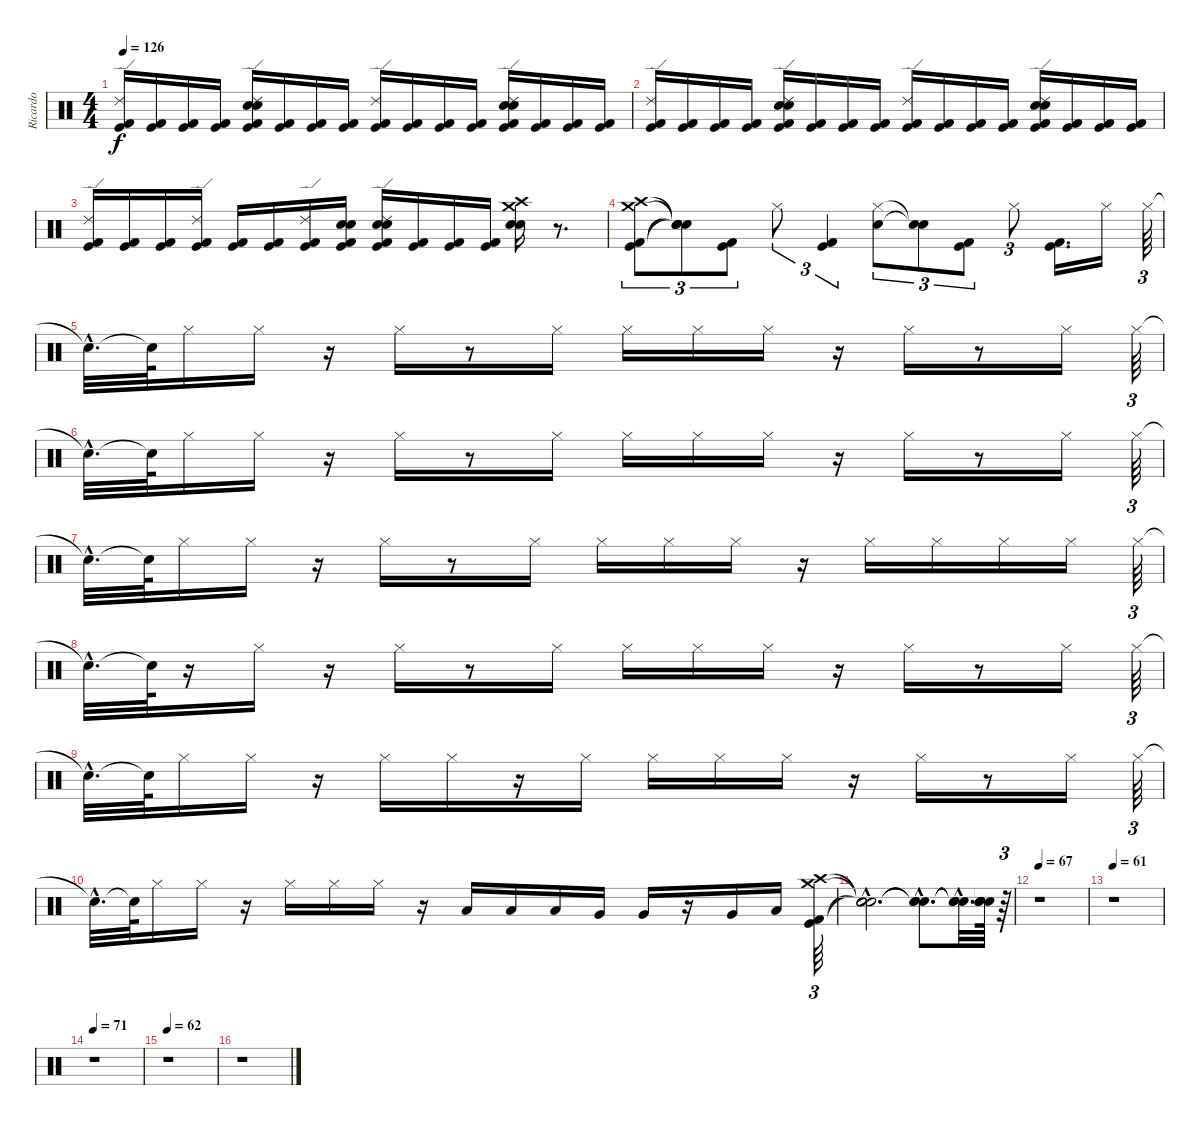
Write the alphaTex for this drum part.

\track ("Ricardo" "Ricardo") {instrument percussion}
\staff {score}
\articulation defaults
\ts (4 4)
\tempo 126
\clef neutral
\ks c
("Kick (hit) 2" "Ride (edge) 2" "Kick (hit)").16{dy f} ("Kick (hit) 2" "Kick (hit)").16 ("Kick (hit) 2" "Kick (hit)").16 ("Kick (hit) 2" "Kick (hit)").16 ("Snare (hit) 2" "Kick (hit) 2" "Ride (edge) 2" "Electric Snare (hit)" "Kick (hit)").16 ("Kick (hit) 2" "Kick (hit)").16 ("Kick (hit) 2" "Kick (hit)").16 ("Kick (hit) 2" "Kick (hit)").16 ("Kick (hit) 2" "Ride (edge) 2" "Kick (hit)").16 ("Kick (hit) 2" "Kick (hit)").16 ("Kick (hit) 2" "Kick (hit)").16 ("Kick (hit) 2" "Kick (hit)").16 ("Snare (hit) 2" "Kick (hit) 2" "Ride (edge) 2" "Electric Snare (hit)" "Kick (hit)").16 ("Kick (hit) 2" "Kick (hit)").16 ("Kick (hit) 2" "Kick (hit)").16 ("Kick (hit) 2" "Kick (hit)").16 |
("Kick (hit) 2" "Ride (edge) 2" "Kick (hit)").16 ("Kick (hit) 2" "Kick (hit)").16 ("Kick (hit) 2" "Kick (hit)").16 ("Kick (hit) 2" "Kick (hit)").16 ("Snare (hit) 2" "Kick (hit) 2" "Ride (edge) 2" "Electric Snare (hit)" "Kick (hit)").16 ("Kick (hit) 2" "Kick (hit)").16 ("Kick (hit) 2" "Kick (hit)").16 ("Kick (hit) 2" "Kick (hit)").16 ("Kick (hit) 2" "Ride (edge) 2" "Kick (hit)").16 ("Kick (hit) 2" "Kick (hit)").16 ("Kick (hit) 2" "Kick (hit)").16 ("Kick (hit) 2" "Kick (hit)").16 ("Snare (hit) 2" "Kick (hit) 2" "Ride (edge) 2" "Electric Snare (hit)" "Kick (hit)").16 ("Kick (hit) 2" "Kick (hit)").16 ("Kick (hit) 2" "Kick (hit)").16 ("Kick (hit) 2" "Kick (hit)").16 |
("Ride (edge) 2" "Kick (hit) 2" "Kick (hit)").16 ("Kick (hit) 2" "Kick (hit)").16 ("Kick (hit) 2" "Kick (hit)").16 ("Ride (edge) 2" "Kick (hit) 2" "Kick (hit)").16 ("Kick (hit) 2" "Kick (hit)").16 ("Kick (hit) 2" "Kick (hit)").16 ("Ride (edge) 2" "Kick (hit) 2" "Kick (hit)").16 ("Electric Snare (hit)" "Snare (hit) 2" "Kick (hit) 2" "Kick (hit)").16 ("Ride (edge) 2" "Snare (hit) 2" "Electric Snare (hit)" "Kick (hit) 2" "Kick (hit)").16 ("Kick (hit) 2" "Kick (hit)").16 ("Kick (hit) 2" "Kick (hit)").16 ("Kick (hit) 2" "Kick (hit)").16 ("Crash high (hit)" "Crash medium (hit)" "Electric Snare (hit)" "Snare (hit) 2").16 r.8{d} |
("Crash high (hit)" "Crash medium (hit)" "Kick (hit) 2" "Kick (hit)").8{tu (3 2)} ("Snare (hit)"{t} "Snare (hit)"{t} "Snare (hit)"{t} "Snare (hit)"{t}).8{tu (3 2)} ("Kick (hit) 2" "Kick (hit)").8{tu (3 2)} "Hi-Hat (closed)".8{tu (3 2)} ("Kick (hit) 2" "Kick (hit)").4{tu (3 2)} ("Snare (hit)" "Hi-Hat (closed)").8{tu (3 2)} ("Snare (hit)"{t} "Snare (hit)"{t}).8{tu (3 2)} ("Kick (hit) 2" "Kick (hit)").8{tu (3 2)} "Hi-Hat (closed)".8{tu (3 2)} ("Kick (hit) 2" "Kick (hit)").16{d} "Hi-Hat (closed)".16 "Hi-Hat (closed)".64{tu (3 2)} |
"Snare (hit)"{hac t}.32{d} "Snare (hit)"{t}.64 "Hi-Hat (closed)".16 "Hi-Hat (closed)".16 r.16 "Hi-Hat (closed)".16 r.8 "Hi-Hat (closed)".16 "Hi-Hat (closed)".16 "Hi-Hat (closed)".16 "Hi-Hat (closed)".16 r.16 "Hi-Hat (closed)".16 r.8 "Hi-Hat (closed)".16 "Hi-Hat (closed)".64{tu (3 2)} |
"Snare (hit)"{hac t}.32{d} "Snare (hit)"{t}.64 "Hi-Hat (closed)".16 "Hi-Hat (closed)".16 r.16 "Hi-Hat (closed)".16 r.8 "Hi-Hat (closed)".16 "Hi-Hat (closed)".16 "Hi-Hat (closed)".16 "Hi-Hat (closed)".16 r.16 "Hi-Hat (closed)".16 r.8 "Hi-Hat (closed)".16 "Hi-Hat (closed)".64{tu (3 2)} |
"Snare (hit)"{hac t}.32{d} "Snare (hit)"{t}.64 "Hi-Hat (closed)".16 "Hi-Hat (closed)".16 r.16 "Hi-Hat (closed)".16 r.8 "Hi-Hat (closed)".16 "Hi-Hat (closed)".16 "Hi-Hat (closed)".16 "Hi-Hat (closed)".16 r.16 "Hi-Hat (closed)".16 "Hi-Hat (closed)".16 "Hi-Hat (closed)".16 "Hi-Hat (closed)".16 "Hi-Hat (closed)".64{tu (3 2)} |
"Snare (hit)"{hac t}.32{d} "Snare (hit)"{t}.64 r.16 "Hi-Hat (closed)".16 r.16 "Hi-Hat (closed)".16 r.8 "Hi-Hat (closed)".16 "Hi-Hat (closed)".16 "Hi-Hat (closed)".16 "Hi-Hat (closed)".16 r.16 "Hi-Hat (closed)".16 r.8 "Hi-Hat (closed)".16 "Hi-Hat (closed)".64{tu (3 2)} |
"Snare (hit)"{hac t}.32{d} "Snare (hit)"{t}.64 "Hi-Hat (closed)".16 "Hi-Hat (closed)".16 r.16 "Hi-Hat (closed)".16 "Hi-Hat (closed)".16 r.16 "Hi-Hat (closed)".16 "Hi-Hat (closed)".16 "Hi-Hat (closed)".16 "Hi-Hat (closed)".16 r.16 "Hi-Hat (closed)".16 r.8 "Hi-Hat (closed)".16 "Hi-Hat (closed)".64{tu (3 2)} |
"Snare (hit)"{hac t}.32{d} "Snare (hit)"{t}.64 "Hi-Hat (closed)".16 "Hi-Hat (closed)".16 r.16 "Hi-Hat (closed)".16 "Hi-Hat (closed)".16 "Hi-Hat (closed)".16 r.16 "Low Tom (hit)".16 "Low Tom (hit)".16 "Low Tom (hit)".16 "Very Low Tom (hit)".16 "Very Low Tom (hit)".16 r.16 "Very Low Tom (hit)".16 "Low Floor Tom (hit)".16 ("Crash high (hit)" "Crash medium (hit)" "Kick (hit)" "Kick (hit) 2").64{tu (3 2)} |
("Snare (hit)"{hac t} "Snare (hit)"{hac t} "Snare (hit)"{hac t} "Snare (hit)"{hac t}).2{d} ("Snare (hit)"{hac t} "Snare (hit)"{hac t} "Snare (hit)"{hac t} "Snare (hit)"{hac t}).8{d} ("Snare (hit)"{hac t} "Snare (hit)"{hac t} "Snare (hit)"{hac t} "Snare (hit)"{hac t}).32{d} ("Snare (hit)"{t} "Snare (hit)"{t} "Snare (hit)"{t} "Snare (hit)"{t}).64 r.64{tu (3 2)} |
\tempo 67
r.1 |
\tempo 61
r.1 |
\tempo 71
r.1 |
\tempo 62
r.1 |
r.1
